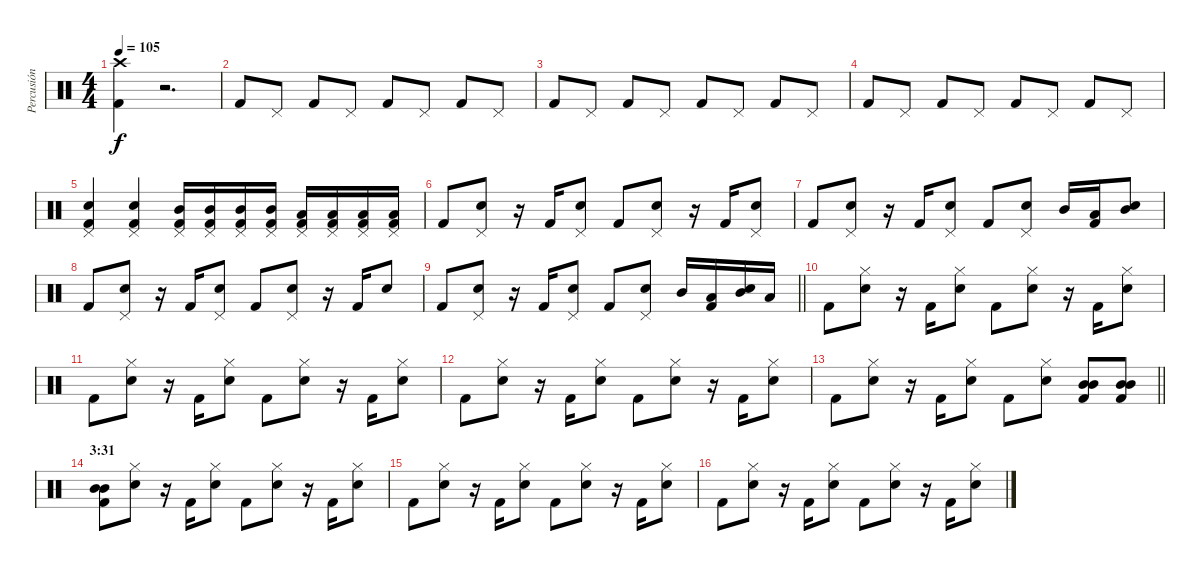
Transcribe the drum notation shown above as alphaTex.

\track ("Percusión" "Percusión") {instrument percussion}
\staff {score}
\articulation defaults
\ts (4 4)
\tempo 105
\clef neutral
\ks c
("Kick (hit) 2" "Crash high (hit)").4{dy f} r.2{d} |
"Kick (hit) 2".8 "Pedal Hi-Hat (hit)".8 "Kick (hit) 2".8 "Pedal Hi-Hat (hit)".8 "Kick (hit) 2".8 "Pedal Hi-Hat (hit)".8 "Kick (hit) 2".8 "Pedal Hi-Hat (hit)".8 |
"Kick (hit) 2".8 "Pedal Hi-Hat (hit)".8 "Kick (hit) 2".8 "Pedal Hi-Hat (hit)".8 "Kick (hit) 2".8 "Pedal Hi-Hat (hit)".8 "Kick (hit) 2".8 "Pedal Hi-Hat (hit)".8 |
"Kick (hit) 2".8 "Pedal Hi-Hat (hit)".8 "Kick (hit) 2".8 "Pedal Hi-Hat (hit)".8 "Kick (hit) 2".8 "Pedal Hi-Hat (hit)".8 "Kick (hit) 2".8 "Pedal Hi-Hat (hit)".8 |
("Kick (hit) 2" "Snare (hit) 2" "Pedal Hi-Hat (hit)").4 ("Kick (hit) 2" "Snare (hit) 2" "Pedal Hi-Hat (hit)").4 ("Kick (hit) 2" "Mid Tom (hit)" "Pedal Hi-Hat (hit)").16 ("Kick (hit) 2" "Mid Tom (hit)" "Pedal Hi-Hat (hit)").16 ("Kick (hit) 2" "Mid Tom (hit)" "Pedal Hi-Hat (hit)").16 ("Kick (hit) 2" "Mid Tom (hit)" "Pedal Hi-Hat (hit)").16 ("Kick (hit) 2" "Low Tom (hit)" "Pedal Hi-Hat (hit)").16 ("Kick (hit) 2" "Low Tom (hit)" "Pedal Hi-Hat (hit)").16 ("Kick (hit) 2" "Low Tom (hit)" "Pedal Hi-Hat (hit)").16 ("Kick (hit) 2" "Low Tom (hit)" "Pedal Hi-Hat (hit)").16 |
"Kick (hit) 2".8 ("Snare (hit) 2" "Pedal Hi-Hat (hit)").8 r.16 "Kick (hit) 2".16 ("Snare (hit) 2" "Pedal Hi-Hat (hit)").8 "Kick (hit) 2".8 ("Snare (hit) 2" "Pedal Hi-Hat (hit)").8 r.16 "Kick (hit) 2".16 ("Snare (hit) 2" "Pedal Hi-Hat (hit)").8 |
"Kick (hit) 2".8 ("Snare (hit) 2" "Pedal Hi-Hat (hit)").8 r.16 "Kick (hit) 2".16 ("Snare (hit) 2" "Pedal Hi-Hat (hit)").8 "Kick (hit) 2".8 ("Snare (hit) 2" "Pedal Hi-Hat (hit)").8 "Mid Tom (hit)".16 ("Kick (hit) 2" "Low Tom (hit)").16 ("Snare (hit) 2" "Mid Tom (hit)").8 |
"Kick (hit) 2".8 ("Snare (hit) 2" "Pedal Hi-Hat (hit)").8 r.16 "Kick (hit) 2".16 ("Snare (hit) 2" "Pedal Hi-Hat (hit)").8 "Kick (hit) 2".8 ("Snare (hit) 2" "Pedal Hi-Hat (hit)").8 r.16 "Kick (hit) 2".16 "Snare (hit) 2".8 |
\barLineRight lightlight "Kick (hit) 2".8
("Snare (hit) 2" "Pedal Hi-Hat (hit)").8 r.16 "Kick (hit) 2".16 ("Snare (hit) 2" "Pedal Hi-Hat (hit)").8 "Kick (hit) 2".8 ("Snare (hit) 2" "Pedal Hi-Hat (hit)").8 "Mid Tom (hit)".16 ("Kick (hit) 2" "Low Tom (hit)").16 ("Snare (hit) 2" "Mid Tom (hit)").16 "Low Tom (hit)".16 |
"Kick (hit) 2".8 ("Snare (hit) 2" "Hi-Hat (closed)").8 r.16 "Kick (hit) 2".16 ("Snare (hit) 2" "Hi-Hat (closed)").8 "Kick (hit) 2".8 ("Snare (hit) 2" "Hi-Hat (closed)").8 r.16 "Kick (hit) 2".16 ("Snare (hit) 2" "Hi-Hat (closed)").8 |
"Kick (hit) 2".8 ("Snare (hit) 2" "Hi-Hat (closed)").8 r.16 "Kick (hit) 2".16 ("Snare (hit) 2" "Hi-Hat (closed)").8 "Kick (hit) 2".8 ("Snare (hit) 2" "Hi-Hat (closed)").8 r.16 "Kick (hit) 2".16 ("Snare (hit) 2" "Hi-Hat (closed)").8 |
"Kick (hit) 2".8 ("Snare (hit) 2" "Hi-Hat (closed)").8 r.16 "Kick (hit) 2".16 ("Snare (hit) 2" "Hi-Hat (closed)").8 "Kick (hit) 2".8 ("Snare (hit) 2" "Hi-Hat (closed)").8 r.16 "Kick (hit) 2".16 ("Snare (hit) 2" "Hi-Hat (closed)").8 |
\barLineRight lightlight "Kick (hit) 2".8
("Snare (hit) 2" "Hi-Hat (closed)").8 r.16 "Kick (hit) 2".16 ("Snare (hit) 2" "Hi-Hat (closed)").8 "Kick (hit) 2".8 ("Snare (hit) 2" "Hi-Hat (closed)").8 ("Kick (hit) 2" "Mid Tom (hit)" "Mid Tom (hit)").8 ("Kick (hit) 2" "Mid Tom (hit)" "Mid Tom (hit)").8 |
\section ("" "3:31")
("Kick (hit) 2" "Mid Tom (hit)" "Mid Tom (hit)").8 ("Snare (hit) 2" "Hi-Hat (closed)").8 r.16 "Kick (hit) 2".16 ("Snare (hit) 2" "Hi-Hat (closed)").8 "Kick (hit) 2".8 ("Snare (hit) 2" "Hi-Hat (closed)").8 r.16 "Kick (hit) 2".16 ("Snare (hit) 2" "Hi-Hat (closed)").8 |
"Kick (hit) 2".8 ("Snare (hit) 2" "Hi-Hat (closed)").8 r.16 "Kick (hit) 2".16 ("Snare (hit) 2" "Hi-Hat (closed)").8 "Kick (hit) 2".8 ("Snare (hit) 2" "Hi-Hat (closed)").8 r.16 "Kick (hit) 2".16 ("Snare (hit) 2" "Hi-Hat (closed)").8 |
"Kick (hit) 2".8 ("Snare (hit) 2" "Hi-Hat (closed)").8 r.16 "Kick (hit) 2".16 ("Snare (hit) 2" "Hi-Hat (closed)").8 "Kick (hit) 2".8 ("Snare (hit) 2" "Hi-Hat (closed)").8 r.16 "Kick (hit) 2".16 ("Snare (hit) 2" "Hi-Hat (closed)").8
